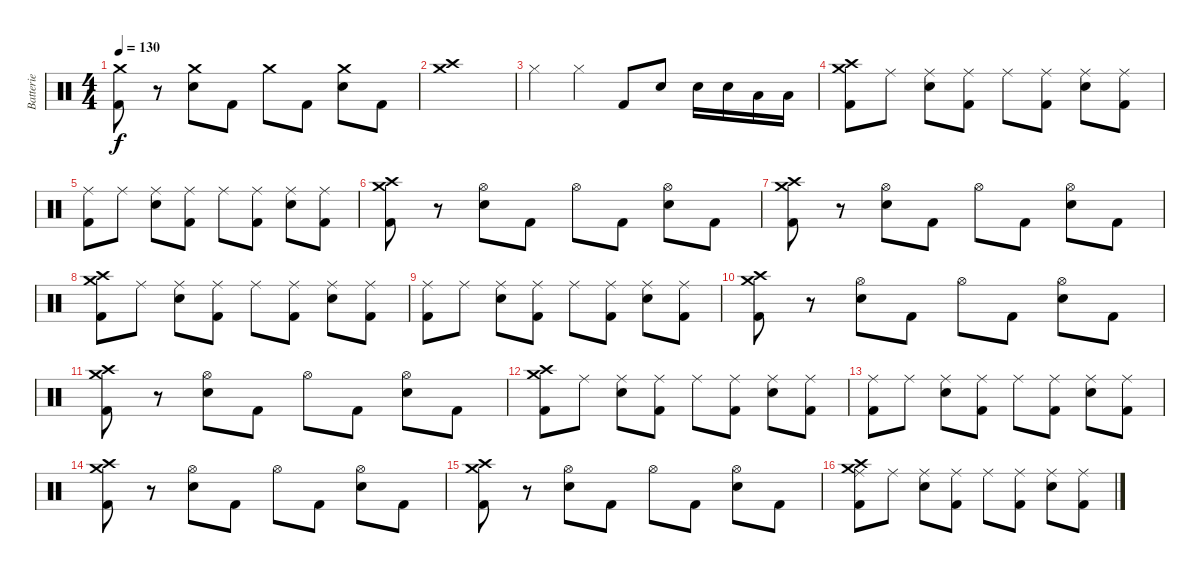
\track ("Batterie" "Batterie") {instrument percussion}
\staff {score}
\articulation defaults
\ts (4 4)
\tempo 130
\clef neutral
\ks c
("Crash medium (hit)" "Kick (hit) 2").8{dy f} r.8 ("Crash medium (hit)" "Snare (hit) 2").8 "Kick (hit) 2".8 "Crash medium (hit)".8 "Kick (hit) 2".8 ("Crash medium (hit)" "Snare (hit) 2").8 "Kick (hit) 2".8 |
("Crash high (hit)" "Crash medium (hit)").1 |
"Hi-Hat (closed)".4 "Hi-Hat (closed)".4 "Kick (hit) 2".8 "Snare (hit) 2".8 "Snare (hit) 2".16 "Snare (hit) 2".16 "Low Tom (hit)".16 "Low Tom (hit)".16 |
("Crash high (hit)" "Crash medium (hit)" "Kick (hit) 2").8 "Ride (middle)".8 ("Ride (middle)" "Snare (hit) 2").8 ("Ride (middle)" "Kick (hit) 2").8 "Ride (middle)".8 ("Ride (middle)" "Kick (hit) 2").8 ("Ride (middle)" "Snare (hit) 2").8 ("Ride (middle)" "Kick (hit) 2").8 |
("Ride (middle)" "Kick (hit) 2").8 "Ride (middle)".8 ("Ride (middle)" "Snare (hit) 2").8 ("Ride (middle)" "Kick (hit) 2").8 "Ride (middle)".8 ("Ride (middle)" "Kick (hit) 2").8 ("Ride (middle)" "Snare (hit) 2").8 ("Ride (middle)" "Kick (hit) 2").8 |
("Crash high (hit)" "Crash medium (hit)" "Kick (hit) 2").8 r.8 ("Hi-Hat (open)" "Snare (hit) 2").8 "Kick (hit) 2".8 "Hi-Hat (open)".8 "Kick (hit) 2".8 ("Hi-Hat (open)" "Snare (hit) 2").8 "Kick (hit) 2".8 |
("Crash high (hit)" "Crash medium (hit)" "Kick (hit) 2").8 r.8 ("Hi-Hat (open)" "Snare (hit) 2").8 "Kick (hit) 2".8 "Hi-Hat (open)".8 "Kick (hit) 2".8 ("Hi-Hat (open)" "Snare (hit) 2").8 "Kick (hit) 2".8 |
("Crash high (hit)" "Crash medium (hit)" "Kick (hit) 2").8 "Ride (middle)".8 ("Ride (middle)" "Snare (hit) 2").8 ("Ride (middle)" "Kick (hit) 2").8 "Ride (middle)".8 ("Ride (middle)" "Kick (hit) 2").8 ("Ride (middle)" "Snare (hit) 2").8 ("Ride (middle)" "Kick (hit) 2").8 |
("Ride (middle)" "Kick (hit) 2").8 "Ride (middle)".8 ("Ride (middle)" "Snare (hit) 2").8 ("Ride (middle)" "Kick (hit) 2").8 "Ride (middle)".8 ("Ride (middle)" "Kick (hit) 2").8 ("Ride (middle)" "Snare (hit) 2").8 ("Ride (middle)" "Kick (hit) 2").8 |
("Crash high (hit)" "Crash medium (hit)" "Kick (hit) 2").8 r.8 ("Hi-Hat (open)" "Snare (hit) 2").8 "Kick (hit) 2".8 "Hi-Hat (open)".8 "Kick (hit) 2".8 ("Hi-Hat (open)" "Snare (hit) 2").8 "Kick (hit) 2".8 |
("Crash high (hit)" "Crash medium (hit)" "Kick (hit) 2").8 r.8 ("Hi-Hat (open)" "Snare (hit) 2").8 "Kick (hit) 2".8 "Hi-Hat (open)".8 "Kick (hit) 2".8 ("Hi-Hat (open)" "Snare (hit) 2").8 "Kick (hit) 2".8 |
("Crash high (hit)" "Crash medium (hit)" "Kick (hit) 2").8 "Ride (middle)".8 ("Ride (middle)" "Snare (hit) 2").8 ("Ride (middle)" "Kick (hit) 2").8 "Ride (middle)".8 ("Ride (middle)" "Kick (hit) 2").8 ("Ride (middle)" "Snare (hit) 2").8 ("Ride (middle)" "Kick (hit) 2").8 |
("Ride (middle)" "Kick (hit) 2").8 "Ride (middle)".8 ("Ride (middle)" "Snare (hit) 2").8 ("Ride (middle)" "Kick (hit) 2").8 "Ride (middle)".8 ("Ride (middle)" "Kick (hit) 2").8 ("Ride (middle)" "Snare (hit) 2").8 ("Ride (middle)" "Kick (hit) 2").8 |
("Crash high (hit)" "Crash medium (hit)" "Kick (hit) 2").8 r.8 ("Hi-Hat (open)" "Snare (hit) 2").8 "Kick (hit) 2".8 "Hi-Hat (open)".8 "Kick (hit) 2".8 ("Hi-Hat (open)" "Snare (hit) 2").8 "Kick (hit) 2".8 |
("Crash high (hit)" "Crash medium (hit)" "Kick (hit) 2").8 r.8 ("Hi-Hat (open)" "Snare (hit) 2").8 "Kick (hit) 2".8 "Hi-Hat (open)".8 "Kick (hit) 2".8 ("Hi-Hat (open)" "Snare (hit) 2").8 "Kick (hit) 2".8 |
("Crash high (hit)" "Crash medium (hit)" "Ride (middle)" "Kick (hit) 2").8 "Ride (middle)".8 ("Ride (middle)" "Snare (hit) 2").8 ("Ride (middle)" "Kick (hit) 2").8 "Ride (middle)".8 ("Ride (middle)" "Kick (hit) 2").8 ("Ride (middle)" "Snare (hit) 2").8 ("Ride (middle)" "Kick (hit) 2").8
